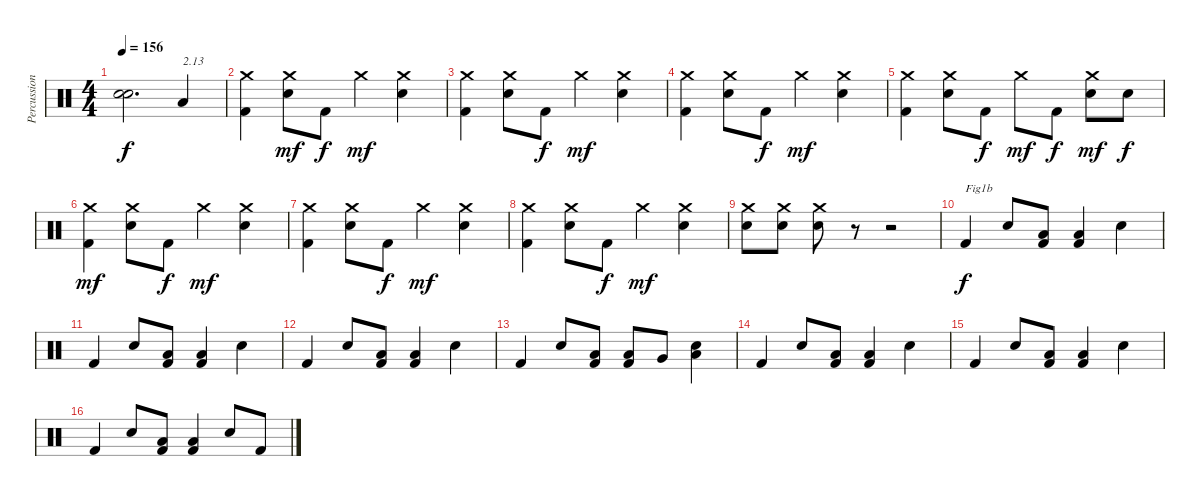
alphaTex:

\track ("Percussions" "Percussion") {instrument percussion}
\staff {score}
\articulation defaults
\ts (4 4)
\tempo 156
\clef neutral
\ks c
("Snare (hit)"{t} "Snare (hit)"{t}).2{d dy f} "Low Floor Tom (hit)".4{txt "2.13"} |
("Kick (hit) 2" "Crash medium (hit)").4 ("Electric Snare (hit)" "Crash medium (hit)").8{dy mf} "Kick (hit) 2".8{dy f} "Crash medium (hit)".4{dy mf} ("Electric Snare (hit)" "Crash medium (hit)").4 |
("Kick (hit) 2" "Crash medium (hit)").4 ("Electric Snare (hit)" "Crash medium (hit)").8 "Kick (hit) 2".8{dy f} "Crash medium (hit)".4{dy mf} ("Electric Snare (hit)" "Crash medium (hit)").4 |
("Kick (hit) 2" "Crash medium (hit)").4 ("Electric Snare (hit)" "Crash medium (hit)").8 "Kick (hit) 2".8{dy f} "Crash medium (hit)".4{dy mf} ("Electric Snare (hit)" "Crash medium (hit)").4 |
("Kick (hit) 2" "Crash medium (hit)").4 ("Electric Snare (hit)" "Crash medium (hit)").8 "Kick (hit) 2".8{dy f} "Crash medium (hit)".8{dy mf} "Kick (hit) 2".8{dy f} ("Electric Snare (hit)" "Crash medium (hit)").8{dy mf} "Electric Snare (hit)".8{dy f} |
("Kick (hit) 2" "Crash medium (hit)").4{dy mf} ("Electric Snare (hit)" "Crash medium (hit)").8 "Kick (hit) 2".8{dy f} "Crash medium (hit)".4{dy mf} ("Electric Snare (hit)" "Crash medium (hit)").4 |
("Kick (hit) 2" "Crash medium (hit)").4 ("Electric Snare (hit)" "Crash medium (hit)").8 "Kick (hit) 2".8{dy f} "Crash medium (hit)".4{dy mf} ("Electric Snare (hit)" "Crash medium (hit)").4 |
("Kick (hit) 2" "Crash medium (hit)").4 ("Electric Snare (hit)" "Crash medium (hit)").8 "Kick (hit) 2".8{dy f} "Crash medium (hit)".4{dy mf} ("Electric Snare (hit)" "Crash medium (hit)").4 |
("Electric Snare (hit)" "Crash medium (hit)").8 ("Electric Snare (hit)" "Crash medium (hit)").8 ("Electric Snare (hit)" "Crash medium (hit)").8 r.8 r.2 |
"Kick (hit) 2".4{txt "Fig1b" dy f} "Electric Snare (hit)".8 ("Kick (hit) 2" "Low Floor Tom (hit)").8 ("Kick (hit) 2" "Low Floor Tom (hit)").4 "Electric Snare (hit)".4 |
"Kick (hit) 2".4 "Electric Snare (hit)".8 ("Kick (hit) 2" "Low Floor Tom (hit)").8 ("Kick (hit) 2" "Low Floor Tom (hit)").4 "Electric Snare (hit)".4 |
"Kick (hit) 2".4 "Electric Snare (hit)".8 ("Kick (hit) 2" "Low Floor Tom (hit)").8 ("Kick (hit) 2" "Low Floor Tom (hit)").4 "Electric Snare (hit)".4 |
"Kick (hit) 2".4 "Electric Snare (hit)".8 ("Kick (hit) 2" "Low Floor Tom (hit)").8 ("Kick (hit) 2" "Low Floor Tom (hit)").8 "Very Low Tom (hit)".8 ("Electric Snare (hit)" "Low Floor Tom (hit)").4 |
"Kick (hit) 2".4 "Electric Snare (hit)".8 ("Kick (hit) 2" "Low Floor Tom (hit)").8 ("Kick (hit) 2" "Low Floor Tom (hit)").4 "Electric Snare (hit)".4 |
"Kick (hit) 2".4 "Electric Snare (hit)".8 ("Kick (hit) 2" "Low Floor Tom (hit)").8 ("Kick (hit) 2" "Low Floor Tom (hit)").4 "Electric Snare (hit)".4 |
"Kick (hit) 2".4 "Electric Snare (hit)".8 ("Kick (hit) 2" "Low Floor Tom (hit)").8 ("Kick (hit) 2" "Low Floor Tom (hit)").4 "Electric Snare (hit)".8 "Kick (hit) 2".8
